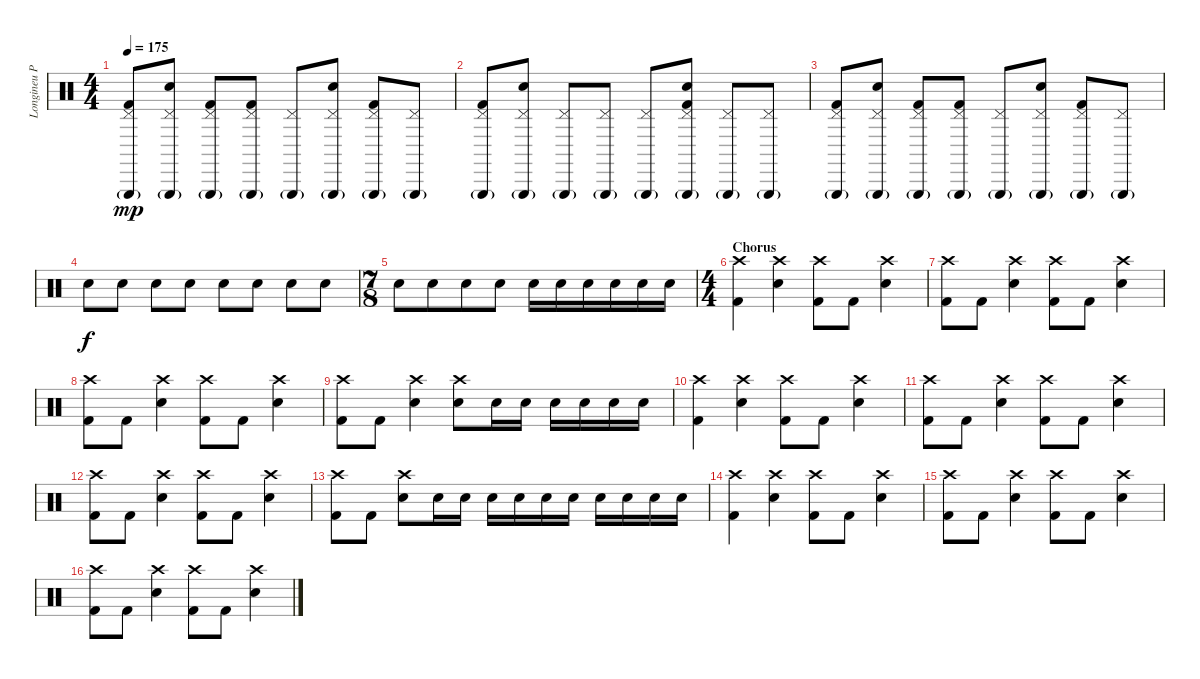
\track ("Longineu Parsons III Drums" "Longineu P") {instrument percussion}
\staff {score}
\articulation defaults
\ts (4 4)
\tempo 175
\clef neutral
\ks c
("Triangle (hit)"{g} "Pedal Hi-Hat (hit)" "Kick (hit) 2").8{dy mp} ("Triangle (hit)"{g} "Pedal Hi-Hat (hit)" "Electric Snare (hit)").8 ("Triangle (hit)"{g} "Pedal Hi-Hat (hit)" "Kick (hit) 2").8 ("Triangle (hit)"{g} "Pedal Hi-Hat (hit)" "Kick (hit) 2").8 ("Triangle (hit)"{g} "Pedal Hi-Hat (hit)").8 ("Triangle (hit)"{g} "Pedal Hi-Hat (hit)" "Electric Snare (hit)").8 ("Triangle (hit)"{g} "Pedal Hi-Hat (hit)" "Kick (hit) 2").8 ("Triangle (hit)"{g} "Pedal Hi-Hat (hit)").8 |
("Triangle (hit)"{g} "Pedal Hi-Hat (hit)" "Kick (hit) 2").8 ("Triangle (hit)"{g} "Pedal Hi-Hat (hit)" "Electric Snare (hit)").8 ("Triangle (hit)"{g} "Pedal Hi-Hat (hit)").8 ("Triangle (hit)"{g} "Pedal Hi-Hat (hit)").8 ("Triangle (hit)"{g} "Pedal Hi-Hat (hit)").8 ("Triangle (hit)"{g} "Pedal Hi-Hat (hit)" "Electric Snare (hit)" "Kick (hit) 2").8 ("Triangle (hit)"{g} "Pedal Hi-Hat (hit)").8 ("Triangle (hit)"{g} "Pedal Hi-Hat (hit)").8 |
("Triangle (hit)"{g} "Pedal Hi-Hat (hit)" "Kick (hit) 2").8 ("Triangle (hit)"{g} "Pedal Hi-Hat (hit)" "Electric Snare (hit)").8 ("Triangle (hit)"{g} "Pedal Hi-Hat (hit)" "Kick (hit) 2").8 ("Triangle (hit)"{g} "Pedal Hi-Hat (hit)" "Kick (hit) 2").8 ("Triangle (hit)"{g} "Pedal Hi-Hat (hit)").8 ("Triangle (hit)"{g} "Pedal Hi-Hat (hit)" "Electric Snare (hit)").8 ("Triangle (hit)"{g} "Pedal Hi-Hat (hit)" "Kick (hit) 2").8 ("Triangle (hit)"{g} "Pedal Hi-Hat (hit)").8 |
"Snare (hit) 2".8{dy f} "Snare (hit) 2".8 "Snare (hit) 2".8 "Snare (hit) 2".8 "Snare (hit) 2".8 "Snare (hit) 2".8 "Snare (hit) 2".8 "Snare (hit) 2".8 |
\ts (7 8)
"Snare (hit) 2".8 "Snare (hit) 2".8 "Snare (hit) 2".8 "Snare (hit) 2".8 "Snare (hit) 2".16 "Snare (hit) 2".16 "Snare (hit) 2".16 "Snare (hit) 2".16 "Snare (hit) 2".16 "Snare (hit) 2".16 |
\ts (4 4)
\section ("" "Chorus")
("Kick (hit) 2" "Crash high (hit)").4 ("Snare (hit) 2" "Crash high (hit)").4 ("Kick (hit) 2" "Crash high (hit)").8 "Kick (hit) 2".8 ("Snare (hit) 2" "Crash high (hit)").4 |
("Kick (hit) 2" "Crash high (hit)").8 "Kick (hit) 2".8 ("Snare (hit) 2" "Crash high (hit)").4 ("Kick (hit) 2" "Crash high (hit)").8 "Kick (hit) 2".8 ("Snare (hit) 2" "Crash high (hit)").4 |
("Kick (hit) 2" "Crash high (hit)").8 "Kick (hit) 2".8 ("Snare (hit) 2" "Crash high (hit)").4 ("Kick (hit) 2" "Crash high (hit)").8 "Kick (hit) 2".8 ("Snare (hit) 2" "Crash high (hit)").4 |
("Kick (hit) 2" "Crash high (hit)").8 "Kick (hit) 2".8 ("Snare (hit) 2" "Crash high (hit)").4 ("Crash high (hit)" "Snare (hit) 2").8 "Snare (hit) 2".16 "Snare (hit) 2".16 "Snare (hit) 2".16 "Snare (hit) 2".16 "Snare (hit) 2".16 "Snare (hit) 2".16 |
("Kick (hit) 2" "Crash high (hit)").4 ("Snare (hit) 2" "Crash high (hit)").4 ("Kick (hit) 2" "Crash high (hit)").8 "Kick (hit) 2".8 ("Snare (hit) 2" "Crash high (hit)").4 |
("Kick (hit) 2" "Crash high (hit)").8 "Kick (hit) 2".8 ("Snare (hit) 2" "Crash high (hit)").4 ("Kick (hit) 2" "Crash high (hit)").8 "Kick (hit) 2".8 ("Snare (hit) 2" "Crash high (hit)").4 |
("Kick (hit) 2" "Crash high (hit)").8 "Kick (hit) 2".8 ("Snare (hit) 2" "Crash high (hit)").4 ("Kick (hit) 2" "Crash high (hit)").8 "Kick (hit) 2".8 ("Snare (hit) 2" "Crash high (hit)").4 |
("Kick (hit) 2" "Crash high (hit)").8 "Kick (hit) 2".8 ("Snare (hit) 2" "Crash high (hit)").8 "Snare (hit) 2".16 "Snare (hit) 2".16 "Snare (hit) 2".16 "Snare (hit) 2".16 "Snare (hit) 2".16 "Snare (hit) 2".16 "Snare (hit) 2".16 "Snare (hit) 2".16 "Snare (hit) 2".16 "Snare (hit) 2".16 |
("Kick (hit) 2" "Crash high (hit)").4 ("Snare (hit) 2" "Crash high (hit)").4 ("Kick (hit) 2" "Crash high (hit)").8 "Kick (hit) 2".8 ("Snare (hit) 2" "Crash high (hit)").4 |
("Kick (hit) 2" "Crash high (hit)").8 "Kick (hit) 2".8 ("Snare (hit) 2" "Crash high (hit)").4 ("Kick (hit) 2" "Crash high (hit)").8 "Kick (hit) 2".8 ("Snare (hit) 2" "Crash high (hit)").4 |
("Kick (hit) 2" "Crash high (hit)").8 "Kick (hit) 2".8 ("Snare (hit) 2" "Crash high (hit)").4 ("Kick (hit) 2" "Crash high (hit)").8 "Kick (hit) 2".8 ("Snare (hit) 2" "Crash high (hit)").4
